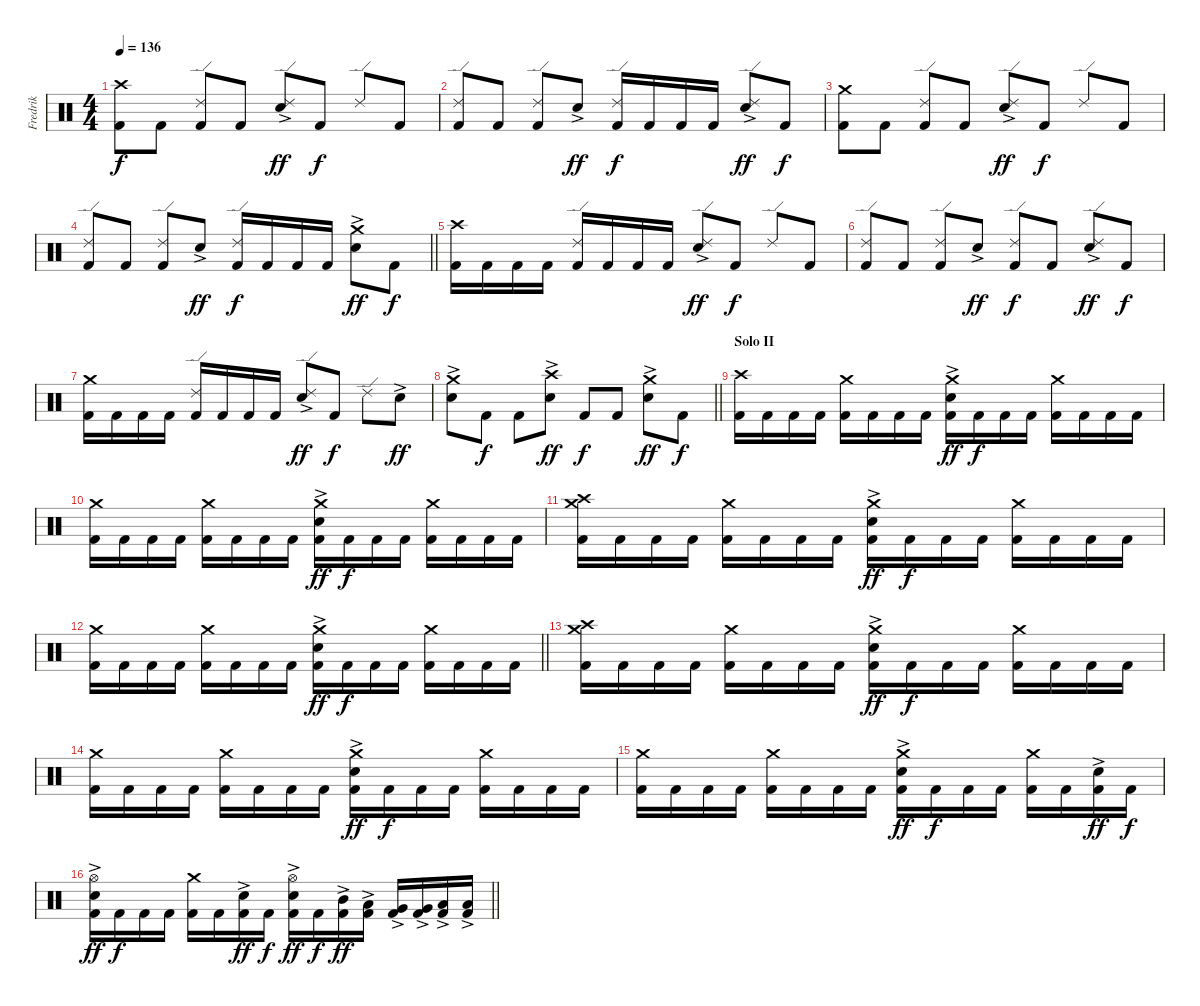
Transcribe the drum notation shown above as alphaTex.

\track ("Fredrik" "Fredrik") {instrument percussion}
\staff {score}
\articulation defaults
\ts (4 4)
\section ("" "")
\tempo 136
\clef neutral
\ks c
("Kick (hit) 2" "Crash high (hit)").8{dy f} "Kick (hit) 2".8 ("Kick (hit) 2" "Ride (edge) 2").8 "Kick (hit) 2".8 ("Snare (hit) 2"{ac} "Ride (edge) 2").8{dy ff} "Kick (hit) 2".8{dy f} "Ride (edge) 2".8 "Kick (hit) 2".8 |
("Kick (hit) 2" "Ride (edge) 2").8 "Kick (hit) 2".8 ("Kick (hit) 2" "Ride (edge) 2").8 "Snare (hit) 2"{ac}.8{dy ff} ("Kick (hit) 2" "Ride (edge) 2").16{dy f} "Kick (hit) 2".16 "Kick (hit) 2".16 "Kick (hit) 2".16 ("Snare (hit) 2"{ac} "Ride (edge) 2").8{dy ff} "Kick (hit) 2".8{dy f} |
("Kick (hit) 2" "Crash medium (hit)").8 "Kick (hit) 2".8 ("Kick (hit) 2" "Ride (edge) 2").8 "Kick (hit) 2".8 ("Snare (hit) 2"{ac} "Ride (edge) 2").8{dy ff} "Kick (hit) 2".8{dy f} "Ride (edge) 2".8 "Kick (hit) 2".8 |
\barLineRight lightlight
("Kick (hit) 2" "Ride (edge) 2").8 "Kick (hit) 2".8 ("Kick (hit) 2" "Ride (edge) 2").8 "Snare (hit) 2"{ac}.8{dy ff} ("Kick (hit) 2" "Ride (edge) 2").16{dy f} "Kick (hit) 2".16 "Kick (hit) 2".16 "Kick (hit) 2".16 ("Snare (hit) 2"{ac} "Crash medium (hit)").8{dy ff} "Kick (hit) 2".8{dy f} |
\section ("" "")
("Kick (hit) 2" "Crash high (hit)").16 "Kick (hit) 2".16 "Kick (hit) 2".16 "Kick (hit) 2".16 ("Kick (hit) 2" "Ride (edge) 2").16 "Kick (hit) 2".16 "Kick (hit) 2".16 "Kick (hit) 2".16 ("Snare (hit) 2"{ac} "Ride (edge) 2").8{dy ff} "Kick (hit) 2".8{dy f} "Ride (edge) 2".8 "Kick (hit) 2".8 |
("Kick (hit) 2" "Ride (edge) 2").8 "Kick (hit) 2".8 ("Kick (hit) 2" "Ride (edge) 2").8 "Snare (hit) 2"{ac}.8{dy ff} ("Kick (hit) 2" "Ride (edge) 2").8{dy f} "Kick (hit) 2".8 ("Snare (hit) 2"{ac} "Ride (edge) 2").8{dy ff} "Kick (hit) 2".8{dy f} |
("Kick (hit) 2" "Crash medium (hit)").16 "Kick (hit) 2".16 "Kick (hit) 2".16 "Kick (hit) 2".16 ("Kick (hit) 2" "Ride (edge) 2").16 "Kick (hit) 2".16 "Kick (hit) 2".16 "Kick (hit) 2".16 ("Snare (hit) 2"{ac} "Ride (edge) 2").8{dy ff} "Kick (hit) 2".8{dy f} "Ride (edge) 2".8 "Snare (hit) 2"{ac}.8{dy ff} |
\barLineRight lightlight
("Snare (hit) 2"{ac} "Crash medium (hit)").8 "Kick (hit) 2".8{dy f} "Kick (hit) 2".8 ("Snare (hit) 2"{ac} "Crash high (hit)").8{dy ff} "Kick (hit) 2".8{dy f} "Kick (hit) 2".8 ("Snare (hit) 2"{ac} "Crash medium (hit)").8{dy ff} "Kick (hit) 2".8{dy f} |
\section ("" "Solo II")
("Kick (hit) 2" "Crash high (hit)").16 "Kick (hit) 2".16 "Kick (hit) 2".16 "Kick (hit) 2".16 ("Kick (hit) 2" "Crash medium (hit)").16 "Kick (hit) 2".16 "Kick (hit) 2".16 "Kick (hit) 2".16 ("Kick (hit) 2" "Snare (hit) 2"{ac} "Crash medium (hit)").16{dy ff} "Kick (hit) 2".16{dy f} "Kick (hit) 2".16 "Kick (hit) 2".16 ("Kick (hit) 2" "Crash medium (hit)").16 "Kick (hit) 2".16 "Kick (hit) 2".16 "Kick (hit) 2".16 |
("Kick (hit) 2" "Crash medium (hit)").16 "Kick (hit) 2".16 "Kick (hit) 2".16 "Kick (hit) 2".16 ("Kick (hit) 2" "Crash medium (hit)").16 "Kick (hit) 2".16 "Kick (hit) 2".16 "Kick (hit) 2".16 ("Kick (hit) 2" "Snare (hit) 2"{ac} "Crash medium (hit)").16{dy ff} "Kick (hit) 2".16{dy f} "Kick (hit) 2".16 "Kick (hit) 2".16 ("Kick (hit) 2" "Crash medium (hit)").16 "Kick (hit) 2".16 "Kick (hit) 2".16 "Kick (hit) 2".16 |
("Kick (hit) 2" "Crash medium (hit)" "Crash high (hit)").16 "Kick (hit) 2".16 "Kick (hit) 2".16 "Kick (hit) 2".16 ("Kick (hit) 2" "Crash medium (hit)").16 "Kick (hit) 2".16 "Kick (hit) 2".16 "Kick (hit) 2".16 ("Kick (hit) 2" "Snare (hit) 2"{ac} "Crash medium (hit)").16{dy ff} "Kick (hit) 2".16{dy f} "Kick (hit) 2".16 "Kick (hit) 2".16 ("Kick (hit) 2" "Crash medium (hit)").16 "Kick (hit) 2".16 "Kick (hit) 2".16 "Kick (hit) 2".16 |
\barLineRight lightlight
("Kick (hit) 2" "Crash medium (hit)").16 "Kick (hit) 2".16 "Kick (hit) 2".16 "Kick (hit) 2".16 ("Kick (hit) 2" "Crash medium (hit)").16 "Kick (hit) 2".16 "Kick (hit) 2".16 "Kick (hit) 2".16 ("Kick (hit) 2" "Snare (hit) 2"{ac} "Crash medium (hit)").16{dy ff} "Kick (hit) 2".16{dy f} "Kick (hit) 2".16 "Kick (hit) 2".16 ("Kick (hit) 2" "Crash medium (hit)").16 "Kick (hit) 2".16 "Kick (hit) 2".16 "Kick (hit) 2".16 |
\section ("" "")
("Kick (hit) 2" "Crash medium (hit)" "Crash high (hit)").16 "Kick (hit) 2".16 "Kick (hit) 2".16 "Kick (hit) 2".16 ("Kick (hit) 2" "Crash medium (hit)").16 "Kick (hit) 2".16 "Kick (hit) 2".16 "Kick (hit) 2".16 ("Kick (hit) 2" "Snare (hit) 2"{ac} "Crash medium (hit)").16{dy ff} "Kick (hit) 2".16{dy f} "Kick (hit) 2".16 "Kick (hit) 2".16 ("Kick (hit) 2" "Crash medium (hit)").16 "Kick (hit) 2".16 "Kick (hit) 2".16 "Kick (hit) 2".16 |
("Kick (hit) 2" "Crash medium (hit)").16 "Kick (hit) 2".16 "Kick (hit) 2".16 "Kick (hit) 2".16 ("Kick (hit) 2" "Crash medium (hit)").16 "Kick (hit) 2".16 "Kick (hit) 2".16 "Kick (hit) 2".16 ("Kick (hit) 2" "Snare (hit) 2"{ac} "Crash medium (hit)").16{dy ff} "Kick (hit) 2".16{dy f} "Kick (hit) 2".16 "Kick (hit) 2".16 ("Kick (hit) 2" "Crash medium (hit)").16 "Kick (hit) 2".16 "Kick (hit) 2".16 "Kick (hit) 2".16 |
("Kick (hit) 2" "Crash medium (hit)").16 "Kick (hit) 2".16 "Kick (hit) 2".16 "Kick (hit) 2".16 ("Kick (hit) 2" "Crash medium (hit)").16 "Kick (hit) 2".16 "Kick (hit) 2".16 "Kick (hit) 2".16 ("Kick (hit) 2" "Snare (hit) 2"{ac} "Crash medium (hit)").16{dy ff} "Kick (hit) 2".16{dy f} "Kick (hit) 2".16 "Kick (hit) 2".16 ("Kick (hit) 2" "Crash medium (hit)").16 "Kick (hit) 2".16 ("Kick (hit) 2" "Snare (hit) 2"{ac}).16{dy ff} "Kick (hit) 2".16{dy f} |
\barLineRight lightlight
("Kick (hit) 2" "Snare (hit) 2"{ac} "Hi-Hat (open)").16{dy ff} "Kick (hit) 2".16{dy f} "Kick (hit) 2".16 "Kick (hit) 2".16 ("Kick (hit) 2" "Crash medium (hit)").16 "Kick (hit) 2".16 ("Kick (hit) 2" "Snare (hit) 2"{ac}).16{dy ff} "Kick (hit) 2".16{dy f} ("Kick (hit) 2" "Snare (hit) 2"{ac} "Hi-Hat (open)").16{dy ff} "Kick (hit) 2".16{dy f} ("Kick (hit) 2" "Mid Tom (hit)"{ac}).16{dy ff} ("Kick (hit) 2" "Low Tom (hit)"{ac}).16 ("Kick (hit) 2" "Very Low Tom (hit)"{ac}).16 ("Kick (hit) 2" "Very Low Tom (hit)"{ac}).16 ("Kick (hit) 2" "Low Floor Tom (hit)"{ac}).16 ("Kick (hit) 2" "Low Floor Tom (hit)"{ac}).16
